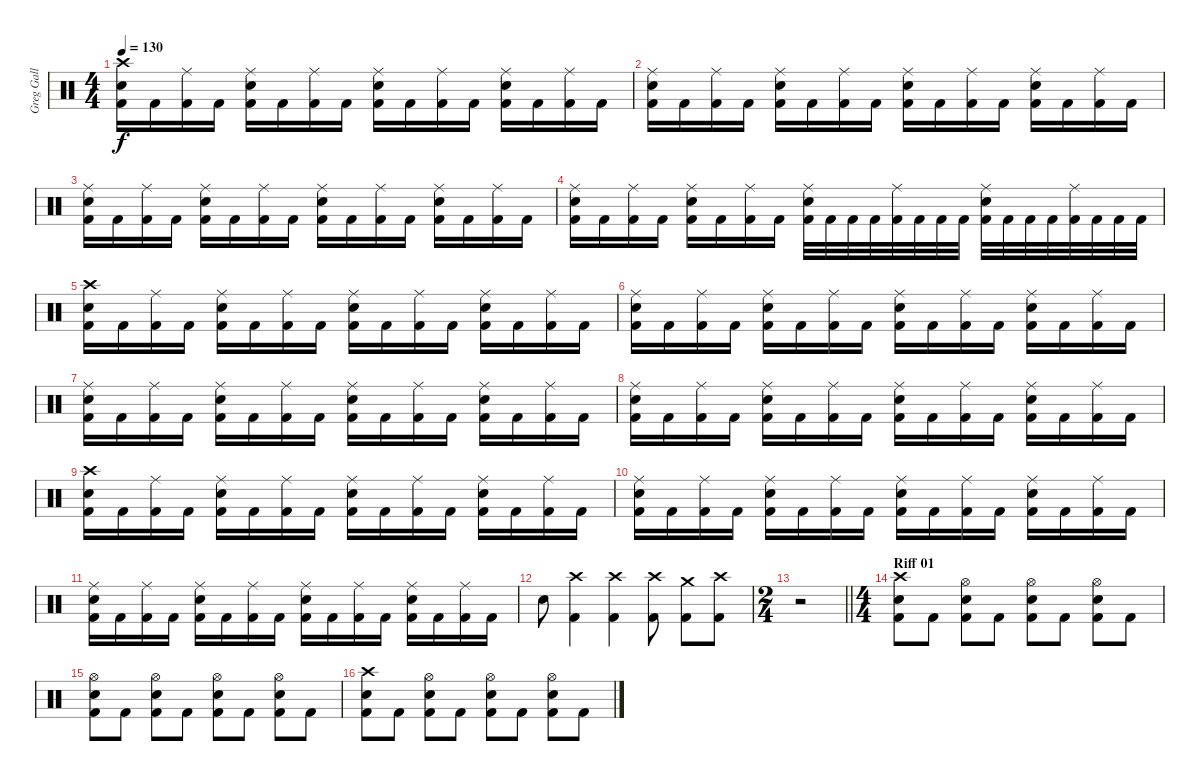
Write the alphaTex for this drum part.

\track ("Greg Gall" "Greg Gall") {instrument percussion}
\staff {score}
\articulation defaults
\ts (4 4)
\tempo 130
\clef neutral
\ks c
("Crash high (hit)" "Electric Snare (hit)" "Kick (hit) 2").16{dy f} "Kick (hit) 2".16 ("Ride (middle)" "Kick (hit) 2").16 "Kick (hit) 2".16 ("Ride (middle)" "Electric Snare (hit)" "Kick (hit) 2").16 "Kick (hit) 2".16 ("Ride (middle)" "Kick (hit) 2").16 "Kick (hit) 2".16 ("Ride (middle)" "Electric Snare (hit)" "Kick (hit) 2").16 "Kick (hit) 2".16 ("Ride (middle)" "Kick (hit) 2").16 "Kick (hit) 2".16 ("Ride (middle)" "Electric Snare (hit)" "Kick (hit) 2").16 "Kick (hit) 2".16 ("Ride (middle)" "Kick (hit) 2").16 "Kick (hit) 2".16 |
("Ride (middle)" "Electric Snare (hit)" "Kick (hit) 2").16 "Kick (hit) 2".16 ("Ride (middle)" "Kick (hit) 2").16 "Kick (hit) 2".16 ("Ride (middle)" "Electric Snare (hit)" "Kick (hit) 2").16 "Kick (hit) 2".16 ("Ride (middle)" "Kick (hit) 2").16 "Kick (hit) 2".16 ("Ride (middle)" "Electric Snare (hit)" "Kick (hit) 2").16 "Kick (hit) 2".16 ("Ride (middle)" "Kick (hit) 2").16 "Kick (hit) 2".16 ("Ride (middle)" "Electric Snare (hit)" "Kick (hit) 2").16 "Kick (hit) 2".16 ("Ride (middle)" "Kick (hit) 2").16 "Kick (hit) 2".16 |
("Ride (middle)" "Electric Snare (hit)" "Kick (hit) 2").16 "Kick (hit) 2".16 ("Ride (middle)" "Kick (hit) 2").16 "Kick (hit) 2".16 ("Ride (middle)" "Electric Snare (hit)" "Kick (hit) 2").16 "Kick (hit) 2".16 ("Ride (middle)" "Kick (hit) 2").16 "Kick (hit) 2".16 ("Ride (middle)" "Electric Snare (hit)" "Kick (hit) 2").16 "Kick (hit) 2".16 ("Ride (middle)" "Kick (hit) 2").16 "Kick (hit) 2".16 ("Ride (middle)" "Electric Snare (hit)" "Kick (hit) 2").16 "Kick (hit) 2".16 ("Ride (middle)" "Kick (hit) 2").16 "Kick (hit) 2".16 |
("Ride (middle)" "Electric Snare (hit)" "Kick (hit) 2").16 "Kick (hit) 2".16 ("Ride (middle)" "Kick (hit) 2").16 "Kick (hit) 2".16 ("Ride (middle)" "Electric Snare (hit)" "Kick (hit) 2").16 "Kick (hit) 2".16 ("Ride (middle)" "Kick (hit) 2").16 "Kick (hit) 2".16 ("Ride (middle)" "Electric Snare (hit)" "Kick (hit) 2").32 "Kick (hit) 2".32 "Kick (hit) 2".32 "Kick (hit) 2".32 ("Ride (middle)" "Kick (hit) 2").32 "Kick (hit) 2".32 "Kick (hit) 2".32 "Kick (hit) 2".32 ("Ride (middle)" "Electric Snare (hit)" "Kick (hit) 2").32 "Kick (hit) 2".32 "Kick (hit) 2".32 "Kick (hit) 2".32 ("Ride (middle)" "Kick (hit) 2").32 "Kick (hit) 2".32 "Kick (hit) 2".32 "Kick (hit) 2".32 |
("Crash high (hit)" "Electric Snare (hit)" "Kick (hit) 2").16 "Kick (hit) 2".16 ("Ride (middle)" "Kick (hit) 2").16 "Kick (hit) 2".16 ("Ride (middle)" "Electric Snare (hit)" "Kick (hit) 2").16 "Kick (hit) 2".16 ("Ride (middle)" "Kick (hit) 2").16 "Kick (hit) 2".16 ("Ride (middle)" "Electric Snare (hit)" "Kick (hit) 2").16 "Kick (hit) 2".16 ("Ride (middle)" "Kick (hit) 2").16 "Kick (hit) 2".16 ("Ride (middle)" "Electric Snare (hit)" "Kick (hit) 2").16 "Kick (hit) 2".16 ("Ride (middle)" "Kick (hit) 2").16 "Kick (hit) 2".16 |
("Ride (middle)" "Electric Snare (hit)" "Kick (hit) 2").16 "Kick (hit) 2".16 ("Ride (middle)" "Kick (hit) 2").16 "Kick (hit) 2".16 ("Ride (middle)" "Electric Snare (hit)" "Kick (hit) 2").16 "Kick (hit) 2".16 ("Ride (middle)" "Kick (hit) 2").16 "Kick (hit) 2".16 ("Ride (middle)" "Electric Snare (hit)" "Kick (hit) 2").16 "Kick (hit) 2".16 ("Ride (middle)" "Kick (hit) 2").16 "Kick (hit) 2".16 ("Ride (middle)" "Electric Snare (hit)" "Kick (hit) 2").16 "Kick (hit) 2".16 ("Ride (middle)" "Kick (hit) 2").16 "Kick (hit) 2".16 |
("Ride (middle)" "Electric Snare (hit)" "Kick (hit) 2").16 "Kick (hit) 2".16 ("Ride (middle)" "Kick (hit) 2").16 "Kick (hit) 2".16 ("Ride (middle)" "Electric Snare (hit)" "Kick (hit) 2").16 "Kick (hit) 2".16 ("Ride (middle)" "Kick (hit) 2").16 "Kick (hit) 2".16 ("Ride (middle)" "Electric Snare (hit)" "Kick (hit) 2").16 "Kick (hit) 2".16 ("Ride (middle)" "Kick (hit) 2").16 "Kick (hit) 2".16 ("Ride (middle)" "Electric Snare (hit)" "Kick (hit) 2").16 "Kick (hit) 2".16 ("Ride (middle)" "Kick (hit) 2").16 "Kick (hit) 2".16 |
("Ride (middle)" "Electric Snare (hit)" "Kick (hit) 2").16 "Kick (hit) 2".16 ("Ride (middle)" "Kick (hit) 2").16 "Kick (hit) 2".16 ("Ride (middle)" "Electric Snare (hit)" "Kick (hit) 2").16 "Kick (hit) 2".16 ("Ride (middle)" "Kick (hit) 2").16 "Kick (hit) 2".16 ("Ride (middle)" "Electric Snare (hit)" "Kick (hit) 2").16 "Kick (hit) 2".16 ("Ride (middle)" "Kick (hit) 2").16 "Kick (hit) 2".16 ("Ride (middle)" "Electric Snare (hit)" "Kick (hit) 2").16 "Kick (hit) 2".16 ("Ride (middle)" "Kick (hit) 2").16 "Kick (hit) 2".16 |
("Crash high (hit)" "Electric Snare (hit)" "Kick (hit) 2").16 "Kick (hit) 2".16 ("Ride (middle)" "Kick (hit) 2").16 "Kick (hit) 2".16 ("Ride (middle)" "Electric Snare (hit)" "Kick (hit) 2").16 "Kick (hit) 2".16 ("Ride (middle)" "Kick (hit) 2").16 "Kick (hit) 2".16 ("Ride (middle)" "Electric Snare (hit)" "Kick (hit) 2").16 "Kick (hit) 2".16 ("Ride (middle)" "Kick (hit) 2").16 "Kick (hit) 2".16 ("Ride (middle)" "Electric Snare (hit)" "Kick (hit) 2").16 "Kick (hit) 2".16 ("Ride (middle)" "Kick (hit) 2").16 "Kick (hit) 2".16 |
("Ride (middle)" "Electric Snare (hit)" "Kick (hit) 2").16 "Kick (hit) 2".16 ("Ride (middle)" "Kick (hit) 2").16 "Kick (hit) 2".16 ("Ride (middle)" "Electric Snare (hit)" "Kick (hit) 2").16 "Kick (hit) 2".16 ("Ride (middle)" "Kick (hit) 2").16 "Kick (hit) 2".16 ("Ride (middle)" "Electric Snare (hit)" "Kick (hit) 2").16 "Kick (hit) 2".16 ("Ride (middle)" "Kick (hit) 2").16 "Kick (hit) 2".16 ("Ride (middle)" "Electric Snare (hit)" "Kick (hit) 2").16 "Kick (hit) 2".16 ("Ride (middle)" "Kick (hit) 2").16 "Kick (hit) 2".16 |
("Ride (middle)" "Electric Snare (hit)" "Kick (hit) 2").16 "Kick (hit) 2".16 ("Ride (middle)" "Kick (hit) 2").16 "Kick (hit) 2".16 ("Ride (middle)" "Electric Snare (hit)" "Kick (hit) 2").16 "Kick (hit) 2".16 ("Ride (middle)" "Kick (hit) 2").16 "Kick (hit) 2".16 ("Ride (middle)" "Electric Snare (hit)" "Kick (hit) 2").16 "Kick (hit) 2".16 ("Ride (middle)" "Kick (hit) 2").16 "Kick (hit) 2".16 ("Ride (middle)" "Electric Snare (hit)" "Kick (hit) 2").16 "Kick (hit) 2".16 ("Ride (middle)" "Kick (hit) 2").16 "Kick (hit) 2".16 |
"Electric Snare (hit)".8 ("Crash high (hit)" "Kick (hit) 2").4 ("Crash high (hit)" "Kick (hit) 2").4 ("Crash high (hit)" "Kick (hit) 2").8 ("Crash medium (hit)" "Kick (hit) 2").8 ("Crash high (hit)" "Kick (hit) 2").8 |
\ts (2 4)
\barLineRight lightlight
r.2 |
\ts (4 4)
\section ("" "Riff 01")
("Crash high (hit)" "Electric Snare (hit)" "Kick (hit) 2").8 "Kick (hit) 2".8 ("Hi-Hat (open)" "Electric Snare (hit)" "Kick (hit) 2").8 "Kick (hit) 2".8 ("Hi-Hat (open)" "Electric Snare (hit)" "Kick (hit) 2").8 "Kick (hit) 2".8 ("Hi-Hat (open)" "Electric Snare (hit)" "Kick (hit) 2").8 "Kick (hit) 2".8 |
("Hi-Hat (open)" "Electric Snare (hit)" "Kick (hit) 2").8 "Kick (hit) 2".8 ("Hi-Hat (open)" "Electric Snare (hit)" "Kick (hit) 2").8 "Kick (hit) 2".8 ("Hi-Hat (open)" "Electric Snare (hit)" "Kick (hit) 2").8 "Kick (hit) 2".8 ("Hi-Hat (open)" "Electric Snare (hit)" "Kick (hit) 2").8 "Kick (hit) 2".8 |
("Crash high (hit)" "Electric Snare (hit)" "Kick (hit) 2").8 "Kick (hit) 2".8 ("Hi-Hat (open)" "Electric Snare (hit)" "Kick (hit) 2").8 "Kick (hit) 2".8 ("Hi-Hat (open)" "Electric Snare (hit)" "Kick (hit) 2").8 "Kick (hit) 2".8 ("Hi-Hat (open)" "Electric Snare (hit)" "Kick (hit) 2").8 "Kick (hit) 2".8
